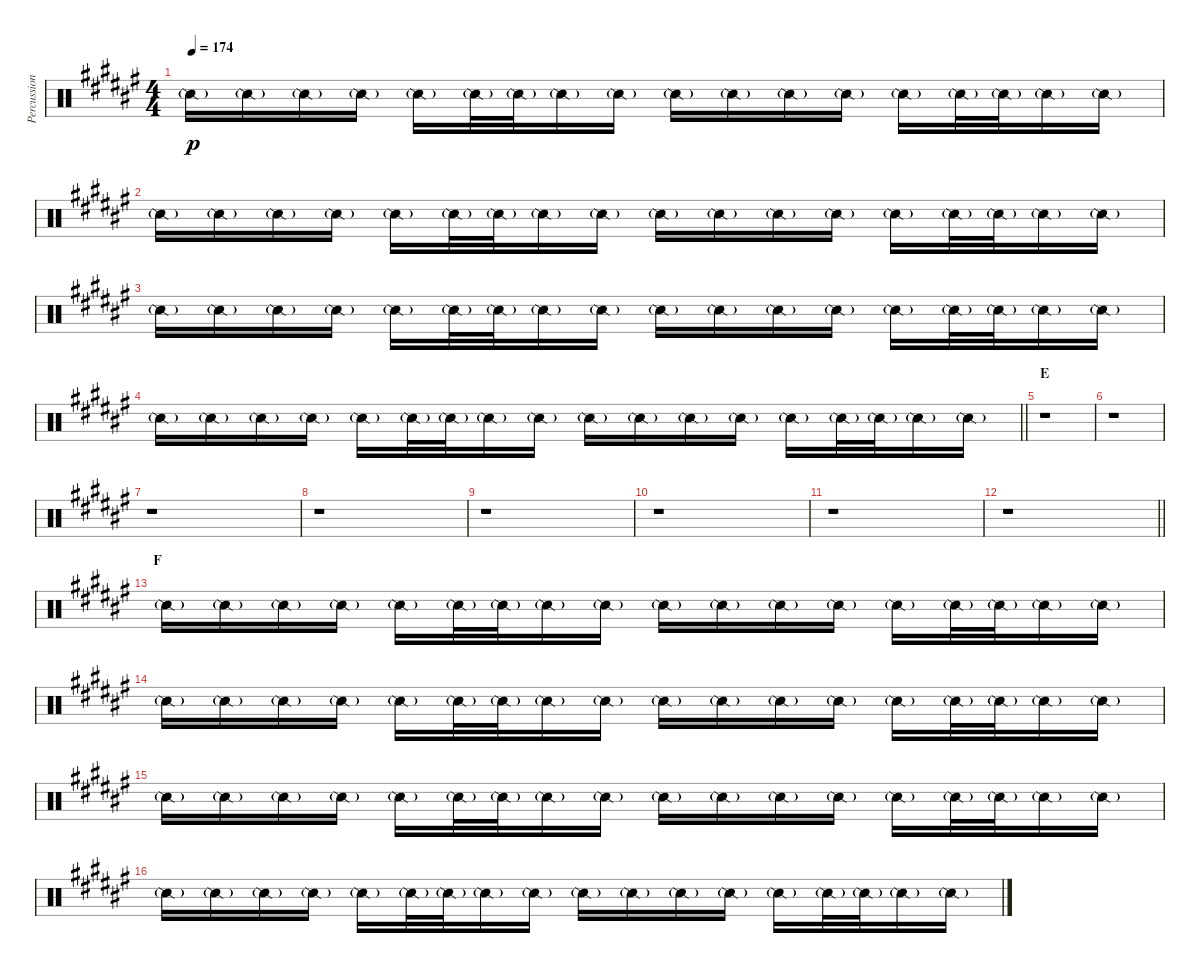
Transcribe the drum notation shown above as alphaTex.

\track ("Percussion I" "Percussion") {instrument percussion}
\staff {score}
\articulation defaults
\ts (4 4)
\tempo 174
\clef neutral
\ks f# "Snare (side stick) 2"{g}.16{dy p} "Snare (side stick) 2"{g}.16 "Snare (side stick) 2"{g}.16 "Snare (side stick) 2"{g}.16 "Snare (side stick) 2"{g}.16 "Snare (side stick) 2"{g}.32 "Snare (side stick) 2"{g}.32 "Snare (side stick) 2"{g}.16 "Snare (side stick) 2"{g}.16 "Snare (side stick) 2"{g}.16 "Snare (side stick) 2"{g}.16 "Snare (side stick) 2"{g}.16 "Snare (side stick) 2"{g}.16 "Snare (side stick) 2"{g}.16 "Snare (side stick) 2"{g}.32 "Snare (side stick) 2"{g}.32 "Snare (side stick) 2"{g}.16 "Snare (side stick) 2"{g}.16
|
"Snare (side stick) 2"{g}.16 "Snare (side stick) 2"{g}.16 "Snare (side stick) 2"{g}.16 "Snare (side stick) 2"{g}.16 "Snare (side stick) 2"{g}.16 "Snare (side stick) 2"{g}.32 "Snare (side stick) 2"{g}.32 "Snare (side stick) 2"{g}.16 "Snare (side stick) 2"{g}.16 "Snare (side stick) 2"{g}.16 "Snare (side stick) 2"{g}.16 "Snare (side stick) 2"{g}.16 "Snare (side stick) 2"{g}.16 "Snare (side stick) 2"{g}.16 "Snare (side stick) 2"{g}.32 "Snare (side stick) 2"{g}.32 "Snare (side stick) 2"{g}.16 "Snare (side stick) 2"{g}.16 |
"Snare (side stick) 2"{g}.16 "Snare (side stick) 2"{g}.16 "Snare (side stick) 2"{g}.16 "Snare (side stick) 2"{g}.16 "Snare (side stick) 2"{g}.16 "Snare (side stick) 2"{g}.32 "Snare (side stick) 2"{g}.32 "Snare (side stick) 2"{g}.16 "Snare (side stick) 2"{g}.16 "Snare (side stick) 2"{g}.16 "Snare (side stick) 2"{g}.16 "Snare (side stick) 2"{g}.16 "Snare (side stick) 2"{g}.16 "Snare (side stick) 2"{g}.16 "Snare (side stick) 2"{g}.32 "Snare (side stick) 2"{g}.32 "Snare (side stick) 2"{g}.16 "Snare (side stick) 2"{g}.16 |
\barLineRight lightlight "Snare (side stick) 2"{g}.16 "Snare (side stick) 2"{g}.16 "Snare (side stick) 2"{g}.16 "Snare (side stick) 2"{g}.16 "Snare (side stick) 2"{g}.16 "Snare (side stick) 2"{g}.32 "Snare (side stick) 2"{g}.32 "Snare (side stick) 2"{g}.16 "Snare (side stick) 2"{g}.16 "Snare (side stick) 2"{g}.16 "Snare (side stick) 2"{g}.16 "Snare (side stick) 2"{g}.16 "Snare (side stick) 2"{g}.16 "Snare (side stick) 2"{g}.16 "Snare (side stick) 2"{g}.32 "Snare (side stick) 2"{g}.32 "Snare (side stick) 2"{g}.16 "Snare (side stick) 2"{g}.16
|
\section ("" "E")
r.1 |
r.1 |
r.1 |
r.1 |
r.1 |
r.1 |
r.1 |
\barLineRight lightlight
r.1 |
\section ("" "F")
"Snare (side stick) 2"{g}.16 "Snare (side stick) 2"{g}.16 "Snare (side stick) 2"{g}.16 "Snare (side stick) 2"{g}.16 "Snare (side stick) 2"{g}.16 "Snare (side stick) 2"{g}.32 "Snare (side stick) 2"{g}.32 "Snare (side stick) 2"{g}.16 "Snare (side stick) 2"{g}.16 "Snare (side stick) 2"{g}.16 "Snare (side stick) 2"{g}.16 "Snare (side stick) 2"{g}.16 "Snare (side stick) 2"{g}.16 "Snare (side stick) 2"{g}.16 "Snare (side stick) 2"{g}.32 "Snare (side stick) 2"{g}.32 "Snare (side stick) 2"{g}.16 "Snare (side stick) 2"{g}.16 |
"Snare (side stick) 2"{g}.16 "Snare (side stick) 2"{g}.16 "Snare (side stick) 2"{g}.16 "Snare (side stick) 2"{g}.16 "Snare (side stick) 2"{g}.16 "Snare (side stick) 2"{g}.32 "Snare (side stick) 2"{g}.32 "Snare (side stick) 2"{g}.16 "Snare (side stick) 2"{g}.16 "Snare (side stick) 2"{g}.16 "Snare (side stick) 2"{g}.16 "Snare (side stick) 2"{g}.16 "Snare (side stick) 2"{g}.16 "Snare (side stick) 2"{g}.16 "Snare (side stick) 2"{g}.32 "Snare (side stick) 2"{g}.32 "Snare (side stick) 2"{g}.16 "Snare (side stick) 2"{g}.16 |
"Snare (side stick) 2"{g}.16 "Snare (side stick) 2"{g}.16 "Snare (side stick) 2"{g}.16 "Snare (side stick) 2"{g}.16 "Snare (side stick) 2"{g}.16 "Snare (side stick) 2"{g}.32 "Snare (side stick) 2"{g}.32 "Snare (side stick) 2"{g}.16 "Snare (side stick) 2"{g}.16 "Snare (side stick) 2"{g}.16 "Snare (side stick) 2"{g}.16 "Snare (side stick) 2"{g}.16 "Snare (side stick) 2"{g}.16 "Snare (side stick) 2"{g}.16 "Snare (side stick) 2"{g}.32 "Snare (side stick) 2"{g}.32 "Snare (side stick) 2"{g}.16 "Snare (side stick) 2"{g}.16 |
"Snare (side stick) 2"{g}.16 "Snare (side stick) 2"{g}.16 "Snare (side stick) 2"{g}.16 "Snare (side stick) 2"{g}.16 "Snare (side stick) 2"{g}.16 "Snare (side stick) 2"{g}.32 "Snare (side stick) 2"{g}.32 "Snare (side stick) 2"{g}.16 "Snare (side stick) 2"{g}.16 "Snare (side stick) 2"{g}.16 "Snare (side stick) 2"{g}.16 "Snare (side stick) 2"{g}.16 "Snare (side stick) 2"{g}.16 "Snare (side stick) 2"{g}.16 "Snare (side stick) 2"{g}.32 "Snare (side stick) 2"{g}.32 "Snare (side stick) 2"{g}.16 "Snare (side stick) 2"{g}.16
